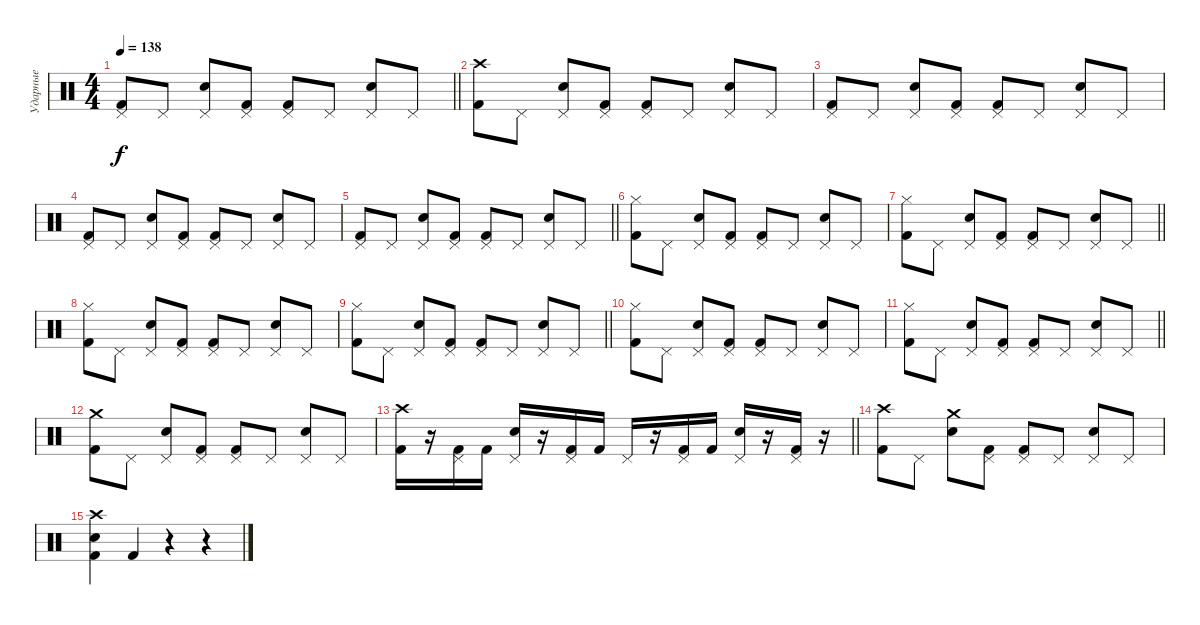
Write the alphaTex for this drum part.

\track ("Ударные" "Ударные") {instrument percussion}
\staff {score}
\articulation defaults
\ts (4 4)
\tempo 138
\clef neutral
\barLineRight lightlight
\ks c
("Pedal Hi-Hat (hit)" "Kick (hit) 2").8{dy f} "Pedal Hi-Hat (hit)".8 ("Pedal Hi-Hat (hit)" "Electric Snare (hit)").8 ("Pedal Hi-Hat (hit)" "Kick (hit) 2").8 ("Pedal Hi-Hat (hit)" "Kick (hit) 2").8 "Pedal Hi-Hat (hit)".8 ("Pedal Hi-Hat (hit)" "Electric Snare (hit)").8 "Pedal Hi-Hat (hit)".8 |
("Crash high (hit)" "Kick (hit) 2").8 "Pedal Hi-Hat (hit)".8 ("Pedal Hi-Hat (hit)" "Electric Snare (hit)").8 ("Pedal Hi-Hat (hit)" "Kick (hit) 2").8 ("Pedal Hi-Hat (hit)" "Kick (hit) 2").8 "Pedal Hi-Hat (hit)".8 ("Pedal Hi-Hat (hit)" "Electric Snare (hit)").8 "Pedal Hi-Hat (hit)".8 |
("Pedal Hi-Hat (hit)" "Kick (hit) 2").8 "Pedal Hi-Hat (hit)".8 ("Pedal Hi-Hat (hit)" "Electric Snare (hit)").8 ("Pedal Hi-Hat (hit)" "Kick (hit) 2").8 ("Pedal Hi-Hat (hit)" "Kick (hit) 2").8 "Pedal Hi-Hat (hit)".8 ("Pedal Hi-Hat (hit)" "Electric Snare (hit)").8 "Pedal Hi-Hat (hit)".8 |
("Pedal Hi-Hat (hit)" "Kick (hit) 2").8 "Pedal Hi-Hat (hit)".8 ("Pedal Hi-Hat (hit)" "Electric Snare (hit)").8 ("Pedal Hi-Hat (hit)" "Kick (hit) 2").8 ("Pedal Hi-Hat (hit)" "Kick (hit) 2").8 "Pedal Hi-Hat (hit)".8 ("Pedal Hi-Hat (hit)" "Electric Snare (hit)").8 "Pedal Hi-Hat (hit)".8 |
\barLineRight lightlight
("Pedal Hi-Hat (hit)" "Kick (hit) 2").8 "Pedal Hi-Hat (hit)".8 ("Pedal Hi-Hat (hit)" "Electric Snare (hit)").8 ("Pedal Hi-Hat (hit)" "Kick (hit) 2").8 ("Pedal Hi-Hat (hit)" "Kick (hit) 2").8 "Pedal Hi-Hat (hit)".8 ("Pedal Hi-Hat (hit)" "Electric Snare (hit)").8 "Pedal Hi-Hat (hit)".8 |
("Hi-Hat (closed)" "Kick (hit) 2").8 "Pedal Hi-Hat (hit)".8 ("Pedal Hi-Hat (hit)" "Electric Snare (hit)").8 ("Pedal Hi-Hat (hit)" "Kick (hit) 2").8 ("Pedal Hi-Hat (hit)" "Kick (hit) 2").8 "Pedal Hi-Hat (hit)".8 ("Pedal Hi-Hat (hit)" "Electric Snare (hit)").8 "Pedal Hi-Hat (hit)".8 |
\barLineRight lightlight
("Hi-Hat (closed)" "Kick (hit) 2").8 "Pedal Hi-Hat (hit)".8 ("Pedal Hi-Hat (hit)" "Electric Snare (hit)").8 ("Pedal Hi-Hat (hit)" "Kick (hit) 2").8 ("Pedal Hi-Hat (hit)" "Kick (hit) 2").8 "Pedal Hi-Hat (hit)".8 ("Pedal Hi-Hat (hit)" "Electric Snare (hit)").8 "Pedal Hi-Hat (hit)".8 |
("Hi-Hat (closed)" "Kick (hit) 2").8 "Pedal Hi-Hat (hit)".8 ("Pedal Hi-Hat (hit)" "Electric Snare (hit)").8 ("Pedal Hi-Hat (hit)" "Kick (hit) 2").8 ("Pedal Hi-Hat (hit)" "Kick (hit) 2").8 "Pedal Hi-Hat (hit)".8 ("Pedal Hi-Hat (hit)" "Electric Snare (hit)").8 "Pedal Hi-Hat (hit)".8 |
\barLineRight lightlight
("Hi-Hat (closed)" "Kick (hit) 2").8 "Pedal Hi-Hat (hit)".8 ("Pedal Hi-Hat (hit)" "Electric Snare (hit)").8 ("Pedal Hi-Hat (hit)" "Kick (hit) 2").8 ("Pedal Hi-Hat (hit)" "Kick (hit) 2").8 "Pedal Hi-Hat (hit)".8 ("Pedal Hi-Hat (hit)" "Electric Snare (hit)").8 "Pedal Hi-Hat (hit)".8 |
("Hi-Hat (closed)" "Kick (hit) 2").8 "Pedal Hi-Hat (hit)".8 ("Pedal Hi-Hat (hit)" "Electric Snare (hit)").8 ("Pedal Hi-Hat (hit)" "Kick (hit) 2").8 ("Pedal Hi-Hat (hit)" "Kick (hit) 2").8 "Pedal Hi-Hat (hit)".8 ("Pedal Hi-Hat (hit)" "Electric Snare (hit)").8 "Pedal Hi-Hat (hit)".8 |
\barLineRight lightlight
("Hi-Hat (closed)" "Kick (hit) 2").8 "Pedal Hi-Hat (hit)".8 ("Pedal Hi-Hat (hit)" "Electric Snare (hit)").8 ("Pedal Hi-Hat (hit)" "Kick (hit) 2").8 ("Pedal Hi-Hat (hit)" "Kick (hit) 2").8 "Pedal Hi-Hat (hit)".8 ("Pedal Hi-Hat (hit)" "Electric Snare (hit)").8 "Pedal Hi-Hat (hit)".8 |
("Crash medium (hit)" "Kick (hit) 2").8 "Pedal Hi-Hat (hit)".8 ("Pedal Hi-Hat (hit)" "Electric Snare (hit)").8 ("Pedal Hi-Hat (hit)" "Kick (hit) 2").8 ("Pedal Hi-Hat (hit)" "Kick (hit) 2").8 "Pedal Hi-Hat (hit)".8 ("Pedal Hi-Hat (hit)" "Electric Snare (hit)").8 "Pedal Hi-Hat (hit)".8 |
\barLineRight lightlight
("Crash high (hit)" "Kick (hit) 2").16 r.16 ("Pedal Hi-Hat (hit)" "Kick (hit) 2").16 "Kick (hit) 2".16 ("Pedal Hi-Hat (hit)" "Electric Snare (hit)").16 r.16 ("Pedal Hi-Hat (hit)" "Kick (hit) 2").16 "Kick (hit) 2".16 "Pedal Hi-Hat (hit)".16 r.16 ("Pedal Hi-Hat (hit)" "Kick (hit) 2").16 "Kick (hit) 2".16 ("Pedal Hi-Hat (hit)" "Electric Snare (hit)").16 r.16 ("Pedal Hi-Hat (hit)" "Kick (hit) 2").16 r.16 |
("Crash high (hit)" "Kick (hit) 2").8 "Pedal Hi-Hat (hit)".8 ("Crash medium (hit)" "Electric Snare (hit)").8 ("Pedal Hi-Hat (hit)" "Kick (hit) 2").8 ("Pedal Hi-Hat (hit)" "Kick (hit) 2").8 "Pedal Hi-Hat (hit)".8 ("Pedal Hi-Hat (hit)" "Electric Snare (hit)").8 "Pedal Hi-Hat (hit)".8 |
("Crash high (hit)" "Electric Snare (hit)" "Kick (hit) 2").4 "Kick (hit) 2".4 r.4 r.4
